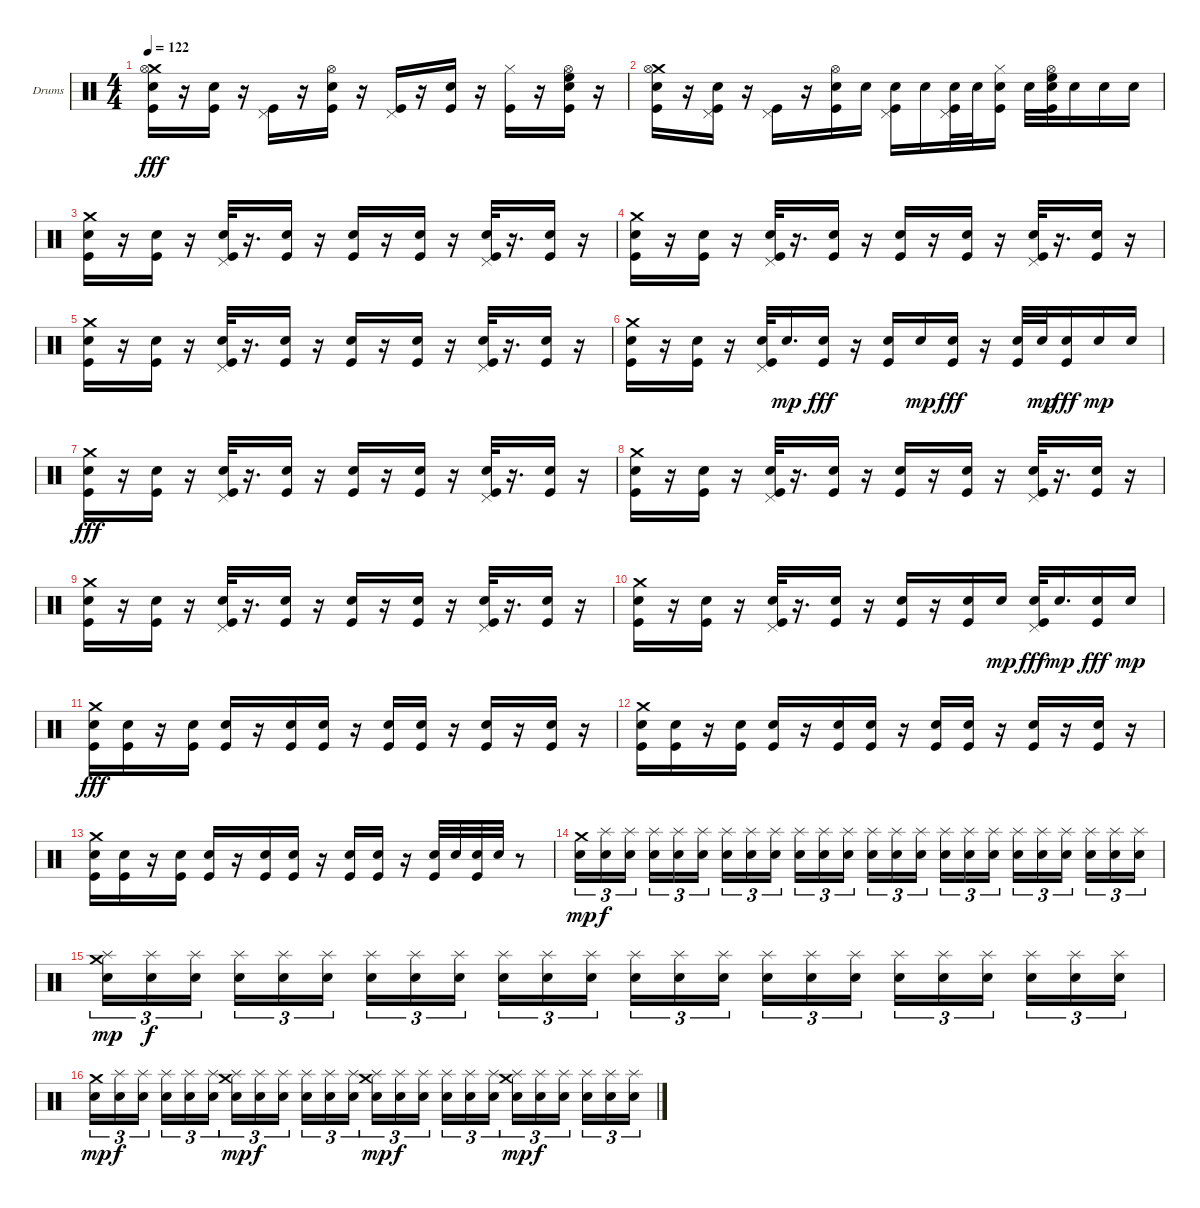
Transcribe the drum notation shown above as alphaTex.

\bracketExtendMode groupsimilarinstruments
\firstSystemTrackNameOrientation horizontal
\otherSystemsTrackNameOrientation horizontal
\track ("Drumkit" "Drums") {instrument percussion}
\staff {score}
\articulation defaults
\ts (4 4)
\tempo 122
\clef neutral
\ks c
("Crash medium (hit)" "Hi-Hat (open)" "Snare (hit) 2" "Kick (hit)").16{dy fff} r.16 ("Snare (hit) 2" "Kick (hit)").16 r.16 ("Pedal Hi-Hat (hit)" "Kick (hit)").16 r.16 ("Hi-Hat (open)" "Snare (hit) 2" "Kick (hit)").16 r.16 ("Pedal Hi-Hat (hit)" "Kick (hit)").16 r.16 ("Snare (hit) 2" "Kick (hit)").16 r.16 ("Hi-Hat (closed)" "Kick (hit)").16 r.16 ("Hi-Hat (open)" "Snare (hit) 2" "High Floor Tom (hit)" "Kick (hit)").16 r.16 |
("Crash medium (hit)" "Hi-Hat (open)" "Snare (hit) 2" "Kick (hit)").16 r.16 ("Pedal Hi-Hat (hit)" "Snare (hit) 2" "Kick (hit)").16 r.16 ("Pedal Hi-Hat (hit)" "Kick (hit)").16 r.16 ("Hi-Hat (open)" "Snare (hit) 2" "Kick (hit)").16 "Snare (hit) 2".16 ("Pedal Hi-Hat (hit)" "Snare (hit) 2" "Kick (hit)").16 "Snare (hit) 2".16 ("Pedal Hi-Hat (hit)" "Snare (hit) 2" "Kick (hit)").32 "Snare (hit) 2".32 ("Hi-Hat (closed)" "Snare (hit) 2" "Kick (hit)").16 "Snare (hit) 2".32 ("Hi-Hat (open)" "Snare (hit) 2" "High Floor Tom (hit)" "Kick (hit)").32 "Snare (hit) 2".16 "Snare (hit) 2".16 "Snare (hit) 2".16 |
("Crash medium (hit)" "Snare (hit) 2" "Kick (hit)").16 r.16 ("Snare (hit) 2" "Kick (hit)").16 r.16 ("Pedal Hi-Hat (hit)" "Snare (hit) 2" "Kick (hit)").32 r.16{d} ("Snare (hit) 2" "Kick (hit)").16 r.16 ("Snare (hit) 2" "Kick (hit)").16 r.16 ("Snare (hit) 2" "Kick (hit)").16 r.16 ("Pedal Hi-Hat (hit)" "Snare (hit) 2" "Kick (hit)").32 r.16{d} ("Snare (hit) 2" "Kick (hit)").16 r.16 |
("Crash medium (hit)" "Snare (hit) 2" "Kick (hit)").16 r.16 ("Snare (hit) 2" "Kick (hit)").16 r.16 ("Pedal Hi-Hat (hit)" "Snare (hit) 2" "Kick (hit)").32 r.16{d} ("Snare (hit) 2" "Kick (hit)").16 r.16 ("Snare (hit) 2" "Kick (hit)").16 r.16 ("Snare (hit) 2" "Kick (hit)").16 r.16 ("Pedal Hi-Hat (hit)" "Snare (hit) 2" "Kick (hit)").32 r.16{d} ("Snare (hit) 2" "Kick (hit)").16 r.16 |
("Crash medium (hit)" "Snare (hit) 2" "Kick (hit)").16 r.16 ("Snare (hit) 2" "Kick (hit)").16 r.16 ("Pedal Hi-Hat (hit)" "Snare (hit) 2" "Kick (hit)").32 r.16{d} ("Snare (hit) 2" "Kick (hit)").16 r.16 ("Snare (hit) 2" "Kick (hit)").16 r.16 ("Snare (hit) 2" "Kick (hit)").16 r.16 ("Pedal Hi-Hat (hit)" "Snare (hit) 2" "Kick (hit)").32 r.16{d} ("Snare (hit) 2" "Kick (hit)").16 r.16 |
("Crash medium (hit)" "Snare (hit) 2" "Kick (hit)").16 r.16 ("Snare (hit) 2" "Kick (hit)").16 r.16 ("Pedal Hi-Hat (hit)" "Snare (hit) 2" "Kick (hit)").32 "Snare (hit) 2".16{d dy mp} ("Snare (hit) 2" "Kick (hit)").16{dy fff} r.16 ("Snare (hit) 2" "Kick (hit)").16 "Snare (hit) 2".16{dy mp} ("Snare (hit) 2" "Kick (hit)").16{dy fff} r.16 ("Snare (hit) 2" "Kick (hit)").32 "Snare (hit) 2".32{dy mp} ("Snare (hit) 2" "Kick (hit)").16{dy fff} "Snare (hit) 2".16{dy mp} "Snare (hit) 2".16 |
("Crash medium (hit)" "Snare (hit) 2" "Kick (hit)").16{dy fff} r.16 ("Snare (hit) 2" "Kick (hit)").16 r.16 ("Pedal Hi-Hat (hit)" "Snare (hit) 2" "Kick (hit)").32 r.16{d} ("Snare (hit) 2" "Kick (hit)").16 r.16 ("Snare (hit) 2" "Kick (hit)").16 r.16 ("Snare (hit) 2" "Kick (hit)").16 r.16 ("Pedal Hi-Hat (hit)" "Snare (hit) 2" "Kick (hit)").32 r.16{d} ("Snare (hit) 2" "Kick (hit)").16 r.16 |
("Crash medium (hit)" "Snare (hit) 2" "Kick (hit)").16 r.16 ("Snare (hit) 2" "Kick (hit)").16 r.16 ("Pedal Hi-Hat (hit)" "Snare (hit) 2" "Kick (hit)").32 r.16{d} ("Snare (hit) 2" "Kick (hit)").16 r.16 ("Snare (hit) 2" "Kick (hit)").16 r.16 ("Snare (hit) 2" "Kick (hit)").16 r.16 ("Pedal Hi-Hat (hit)" "Snare (hit) 2" "Kick (hit)").32 r.16{d} ("Snare (hit) 2" "Kick (hit)").16 r.16 |
("Crash medium (hit)" "Snare (hit) 2" "Kick (hit)").16 r.16 ("Snare (hit) 2" "Kick (hit)").16 r.16 ("Pedal Hi-Hat (hit)" "Snare (hit) 2" "Kick (hit)").32 r.16{d} ("Snare (hit) 2" "Kick (hit)").16 r.16 ("Snare (hit) 2" "Kick (hit)").16 r.16 ("Snare (hit) 2" "Kick (hit)").16 r.16 ("Pedal Hi-Hat (hit)" "Snare (hit) 2" "Kick (hit)").32 r.16{d} ("Snare (hit) 2" "Kick (hit)").16 r.16 |
("Crash medium (hit)" "Snare (hit) 2" "Kick (hit)").16 r.16 ("Snare (hit) 2" "Kick (hit)").16 r.16 ("Pedal Hi-Hat (hit)" "Snare (hit) 2" "Kick (hit)").32 r.16{d} ("Snare (hit) 2" "Kick (hit)").16 r.16 ("Snare (hit) 2" "Kick (hit)").16 r.16 ("Snare (hit) 2" "Kick (hit)").16 "Snare (hit) 2".16{dy mp} ("Pedal Hi-Hat (hit)" "Snare (hit) 2" "Kick (hit)").32{dy fff} "Snare (hit) 2".16{d dy mp} ("Snare (hit) 2" "Kick (hit)").16{dy fff} "Snare (hit) 2".16{dy mp} |
("Crash medium (hit)" "Snare (hit) 2" "Kick (hit)").16{dy fff} ("Snare (hit) 2" "Kick (hit)").16 r.16 ("Snare (hit) 2" "Kick (hit)").16 ("Snare (hit) 2" "Kick (hit)").16 r.16 ("Snare (hit) 2" "Kick (hit)").16 ("Snare (hit) 2" "Kick (hit)").16 r.16 ("Snare (hit) 2" "Kick (hit)").16 ("Snare (hit) 2" "Kick (hit)").16 r.16 ("Snare (hit) 2" "Kick (hit)").16 r.16 ("Snare (hit) 2" "Kick (hit)").16 r.16 |
("Crash medium (hit)" "Snare (hit) 2" "Kick (hit)").16 ("Snare (hit) 2" "Kick (hit)").16 r.16 ("Snare (hit) 2" "Kick (hit)").16 ("Snare (hit) 2" "Kick (hit)").16 r.16 ("Snare (hit) 2" "Kick (hit)").16 ("Snare (hit) 2" "Kick (hit)").16 r.16 ("Snare (hit) 2" "Kick (hit)").16 ("Snare (hit) 2" "Kick (hit)").16 r.16 ("Snare (hit) 2" "Kick (hit)").16 r.16 ("Snare (hit) 2" "Kick (hit)").16 r.16 |
("Crash medium (hit)" "Snare (hit) 2" "Kick (hit)").16 ("Snare (hit) 2" "Kick (hit)").16 r.16 ("Snare (hit) 2" "Kick (hit)").16 ("Snare (hit) 2" "Kick (hit)").16 r.16 ("Snare (hit) 2" "Kick (hit)").16 ("Snare (hit) 2" "Kick (hit)").16 r.16 ("Snare (hit) 2" "Kick (hit)").16 ("Snare (hit) 2" "Kick (hit)").16 r.16 ("Snare (hit) 2" "Kick (hit)").32 "Snare (hit) 2".32 ("Snare (hit) 2" "Kick (hit)").32 "Snare (hit) 2".32 r.8 |
("Crash medium (hit)" "Snare (hit) 2").16{tu (3 2) dy mp} ("Splash (hit)" "Snare (hit) 2").16{tu (3 2) dy f} ("Splash (hit)" "Snare (hit) 2").16{tu (3 2)} ("Splash (hit)" "Snare (hit) 2").16{tu (3 2)} ("Splash (hit)" "Snare (hit) 2").16{tu (3 2)} ("Splash (hit)" "Snare (hit) 2").16{tu (3 2)} ("Splash (hit)" "Snare (hit) 2").16{tu (3 2)} ("Splash (hit)" "Snare (hit) 2").16{tu (3 2)} ("Splash (hit)" "Snare (hit) 2").16{tu (3 2)} ("Splash (hit)" "Snare (hit) 2").16{tu (3 2)} ("Splash (hit)" "Snare (hit) 2").16{tu (3 2)} ("Splash (hit)" "Snare (hit) 2").16{tu (3 2)} ("Splash (hit)" "Snare (hit) 2").16{tu (3 2)} ("Splash (hit)" "Snare (hit) 2").16{tu (3 2)} ("Splash (hit)" "Snare (hit) 2").16{tu (3 2)} ("Splash (hit)" "Snare (hit) 2").16{tu (3 2)} ("Splash (hit)" "Snare (hit) 2").16{tu (3 2)} ("Splash (hit)" "Snare (hit) 2").16{tu (3 2)} ("Splash (hit)" "Snare (hit) 2").16{tu (3 2)} ("Splash (hit)" "Snare (hit) 2").16{tu (3 2)} ("Splash (hit)" "Snare (hit) 2").16{tu (3 2)} ("Splash (hit)" "Snare (hit) 2").16{tu (3 2)} ("Splash (hit)" "Snare (hit) 2").16{tu (3 2)} ("Splash (hit)" "Snare (hit) 2").16{tu (3 2)} |
("Crash medium (hit)" "Splash (hit)" "Snare (hit) 2").16{tu (3 2) dy mp} ("Splash (hit)" "Snare (hit) 2").16{tu (3 2) dy f} ("Splash (hit)" "Snare (hit) 2").16{tu (3 2)} ("Splash (hit)" "Snare (hit) 2").16{tu (3 2)} ("Splash (hit)" "Snare (hit) 2").16{tu (3 2)} ("Splash (hit)" "Snare (hit) 2").16{tu (3 2)} ("Splash (hit)" "Snare (hit) 2").16{tu (3 2)} ("Splash (hit)" "Snare (hit) 2").16{tu (3 2)} ("Splash (hit)" "Snare (hit) 2").16{tu (3 2)} ("Splash (hit)" "Snare (hit) 2").16{tu (3 2)} ("Splash (hit)" "Snare (hit) 2").16{tu (3 2)} ("Splash (hit)" "Snare (hit) 2").16{tu (3 2)} ("Splash (hit)" "Snare (hit) 2").16{tu (3 2)} ("Splash (hit)" "Snare (hit) 2").16{tu (3 2)} ("Splash (hit)" "Snare (hit) 2").16{tu (3 2)} ("Splash (hit)" "Snare (hit) 2").16{tu (3 2)} ("Splash (hit)" "Snare (hit) 2").16{tu (3 2)} ("Splash (hit)" "Snare (hit) 2").16{tu (3 2)} ("Splash (hit)" "Snare (hit) 2").16{tu (3 2)} ("Splash (hit)" "Snare (hit) 2").16{tu (3 2)} ("Splash (hit)" "Snare (hit) 2").16{tu (3 2)} ("Splash (hit)" "Snare (hit) 2").16{tu (3 2)} ("Splash (hit)" "Snare (hit) 2").16{tu (3 2)} ("Splash (hit)" "Snare (hit) 2").16{tu (3 2)} |
("Crash medium (hit)" "Snare (hit) 2").16{tu (3 2) dy mp} ("Splash (hit)" "Snare (hit) 2").16{tu (3 2) dy f} ("Splash (hit)" "Snare (hit) 2").16{tu (3 2)} ("Splash (hit)" "Snare (hit) 2").16{tu (3 2)} ("Splash (hit)" "Snare (hit) 2").16{tu (3 2)} ("Splash (hit)" "Snare (hit) 2").16{tu (3 2)} ("Crash medium (hit)" "Splash (hit)" "Snare (hit) 2").16{tu (3 2) dy mp} ("Splash (hit)" "Snare (hit) 2").16{tu (3 2) dy f} ("Splash (hit)" "Snare (hit) 2").16{tu (3 2)} ("Splash (hit)" "Snare (hit) 2").16{tu (3 2)} ("Splash (hit)" "Snare (hit) 2").16{tu (3 2)} ("Splash (hit)" "Snare (hit) 2").16{tu (3 2)} ("Crash medium (hit)" "Splash (hit)" "Snare (hit) 2").16{tu (3 2) dy mp} ("Splash (hit)" "Snare (hit) 2").16{tu (3 2) dy f} ("Splash (hit)" "Snare (hit) 2").16{tu (3 2)} ("Splash (hit)" "Snare (hit) 2").16{tu (3 2)} ("Splash (hit)" "Snare (hit) 2").16{tu (3 2)} ("Splash (hit)" "Snare (hit) 2").16{tu (3 2)} ("Crash medium (hit)" "Splash (hit)" "Snare (hit) 2").16{tu (3 2) dy mp} ("Splash (hit)" "Snare (hit) 2").16{tu (3 2) dy f} ("Splash (hit)" "Snare (hit) 2").16{tu (3 2)} ("Splash (hit)" "Snare (hit) 2").16{tu (3 2)} ("Splash (hit)" "Snare (hit) 2").16{tu (3 2)} ("Splash (hit)" "Snare (hit) 2").16{tu (3 2)}
